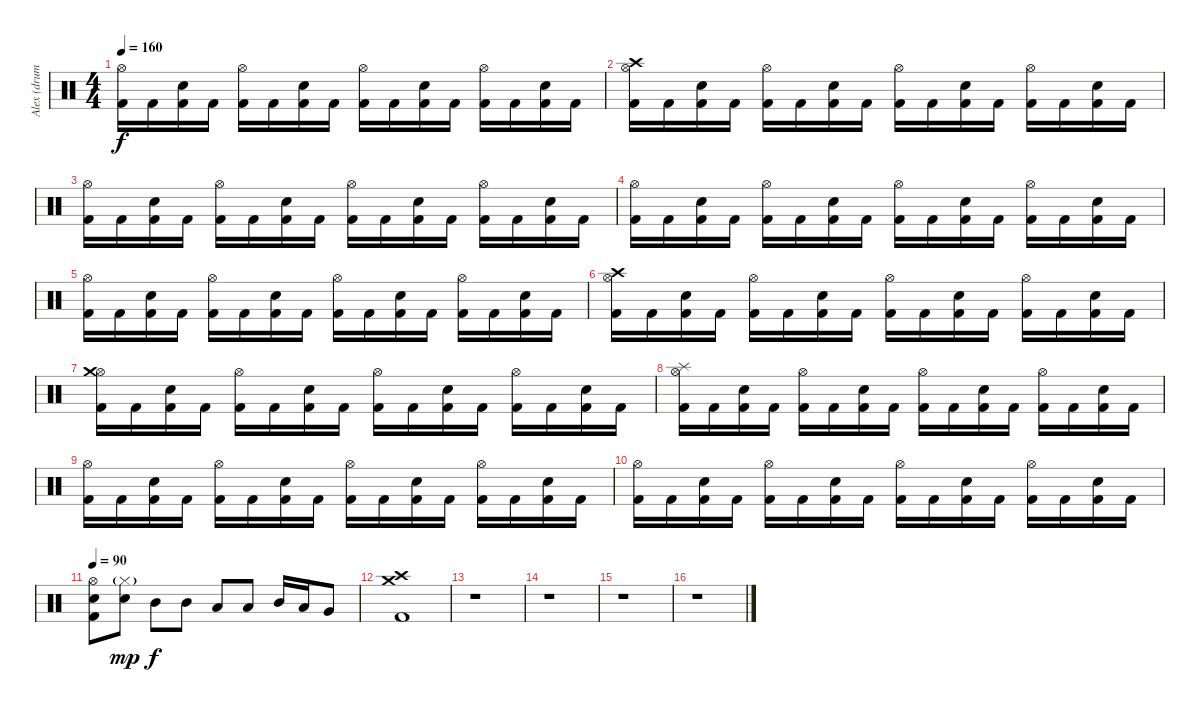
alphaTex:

\track ("Alex (drums)" "Alex (drum") {instrument percussion}
\staff {score}
\articulation defaults
\ts (4 4)
\tempo 160
\clef neutral
\ks c
("Hi-Hat (open)" "Kick (hit) 2").16{dy f} "Kick (hit) 2".16 ("Snare (hit) 2" "Kick (hit) 2").16 "Kick (hit) 2".16 ("Hi-Hat (open)" "Kick (hit) 2").16 "Kick (hit) 2".16 ("Snare (hit) 2" "Kick (hit) 2").16 "Kick (hit) 2".16 ("Hi-Hat (open)" "Kick (hit) 2").16 "Kick (hit) 2".16 ("Snare (hit) 2" "Kick (hit) 2").16 "Kick (hit) 2".16 ("Hi-Hat (open)" "Kick (hit) 2").16 "Kick (hit) 2".16 ("Snare (hit) 2" "Kick (hit) 2").16 "Kick (hit) 2".16 |
("Hi-Hat (open)" "Kick (hit) 2" "Crash high (hit)").16 "Kick (hit) 2".16 ("Snare (hit) 2" "Kick (hit) 2").16 "Kick (hit) 2".16 ("Hi-Hat (open)" "Kick (hit) 2").16 "Kick (hit) 2".16 ("Snare (hit) 2" "Kick (hit) 2").16 "Kick (hit) 2".16 ("Hi-Hat (open)" "Kick (hit) 2").16 "Kick (hit) 2".16 ("Snare (hit) 2" "Kick (hit) 2").16 "Kick (hit) 2".16 ("Hi-Hat (open)" "Kick (hit) 2").16 "Kick (hit) 2".16 ("Snare (hit) 2" "Kick (hit) 2").16 "Kick (hit) 2".16 |
("Hi-Hat (open)" "Kick (hit) 2").16 "Kick (hit) 2".16 ("Snare (hit) 2" "Kick (hit) 2").16 "Kick (hit) 2".16 ("Hi-Hat (open)" "Kick (hit) 2").16 "Kick (hit) 2".16 ("Snare (hit) 2" "Kick (hit) 2").16 "Kick (hit) 2".16 ("Hi-Hat (open)" "Kick (hit) 2").16 "Kick (hit) 2".16 ("Snare (hit) 2" "Kick (hit) 2").16 "Kick (hit) 2".16 ("Hi-Hat (open)" "Kick (hit) 2").16 "Kick (hit) 2".16 ("Snare (hit) 2" "Kick (hit) 2").16 "Kick (hit) 2".16 |
("Hi-Hat (open)" "Kick (hit) 2").16 "Kick (hit) 2".16 ("Snare (hit) 2" "Kick (hit) 2").16 "Kick (hit) 2".16 ("Hi-Hat (open)" "Kick (hit) 2").16 "Kick (hit) 2".16 ("Snare (hit) 2" "Kick (hit) 2").16 "Kick (hit) 2".16 ("Hi-Hat (open)" "Kick (hit) 2").16 "Kick (hit) 2".16 ("Snare (hit) 2" "Kick (hit) 2").16 "Kick (hit) 2".16 ("Hi-Hat (open)" "Kick (hit) 2").16 "Kick (hit) 2".16 ("Snare (hit) 2" "Kick (hit) 2").16 "Kick (hit) 2".16 |
("Hi-Hat (open)" "Kick (hit) 2").16 "Kick (hit) 2".16 ("Snare (hit) 2" "Kick (hit) 2").16 "Kick (hit) 2".16 ("Hi-Hat (open)" "Kick (hit) 2").16 "Kick (hit) 2".16 ("Snare (hit) 2" "Kick (hit) 2").16 "Kick (hit) 2".16 ("Hi-Hat (open)" "Kick (hit) 2").16 "Kick (hit) 2".16 ("Snare (hit) 2" "Kick (hit) 2").16 "Kick (hit) 2".16 ("Hi-Hat (open)" "Kick (hit) 2").16 "Kick (hit) 2".16 ("Snare (hit) 2" "Kick (hit) 2").16 "Kick (hit) 2".16 |
("Hi-Hat (open)" "Kick (hit) 2" "Crash high (hit)").16 "Kick (hit) 2".16 ("Snare (hit) 2" "Kick (hit) 2").16 "Kick (hit) 2".16 ("Hi-Hat (open)" "Kick (hit) 2").16 "Kick (hit) 2".16 ("Snare (hit) 2" "Kick (hit) 2").16 "Kick (hit) 2".16 ("Hi-Hat (open)" "Kick (hit) 2").16 "Kick (hit) 2".16 ("Snare (hit) 2" "Kick (hit) 2").16 "Kick (hit) 2".16 ("Hi-Hat (open)" "Kick (hit) 2").16 "Kick (hit) 2".16 ("Snare (hit) 2" "Kick (hit) 2").16 "Kick (hit) 2".16 |
("Hi-Hat (open)" "Kick (hit) 2" "Crash medium (hit)").16 "Kick (hit) 2".16 ("Snare (hit) 2" "Kick (hit) 2").16 "Kick (hit) 2".16 ("Hi-Hat (open)" "Kick (hit) 2").16 "Kick (hit) 2".16 ("Snare (hit) 2" "Kick (hit) 2").16 "Kick (hit) 2".16 ("Hi-Hat (open)" "Kick (hit) 2").16 "Kick (hit) 2".16 ("Snare (hit) 2" "Kick (hit) 2").16 "Kick (hit) 2".16 ("Hi-Hat (open)" "Kick (hit) 2").16 "Kick (hit) 2".16 ("Snare (hit) 2" "Kick (hit) 2").16 "Kick (hit) 2".16 |
("Hi-Hat (open)" "Kick (hit) 2" "Splash (hit)").16 "Kick (hit) 2".16 ("Snare (hit) 2" "Kick (hit) 2").16 "Kick (hit) 2".16 ("Hi-Hat (open)" "Kick (hit) 2").16 "Kick (hit) 2".16 ("Snare (hit) 2" "Kick (hit) 2").16 "Kick (hit) 2".16 ("Hi-Hat (open)" "Kick (hit) 2").16 "Kick (hit) 2".16 ("Snare (hit) 2" "Kick (hit) 2").16 "Kick (hit) 2".16 ("Hi-Hat (open)" "Kick (hit) 2").16 "Kick (hit) 2".16 ("Snare (hit) 2" "Kick (hit) 2").16 "Kick (hit) 2".16 |
("Hi-Hat (open)" "Kick (hit) 2").16 "Kick (hit) 2".16 ("Snare (hit) 2" "Kick (hit) 2").16 "Kick (hit) 2".16 ("Hi-Hat (open)" "Kick (hit) 2").16 "Kick (hit) 2".16 ("Snare (hit) 2" "Kick (hit) 2").16 "Kick (hit) 2".16 ("Hi-Hat (open)" "Kick (hit) 2").16 "Kick (hit) 2".16 ("Snare (hit) 2" "Kick (hit) 2").16 "Kick (hit) 2".16 ("Hi-Hat (open)" "Kick (hit) 2").16 "Kick (hit) 2".16 ("Snare (hit) 2" "Kick (hit) 2").16 "Kick (hit) 2".16 |
("Hi-Hat (open)" "Kick (hit) 2").16 "Kick (hit) 2".16 ("Snare (hit) 2" "Kick (hit) 2").16 "Kick (hit) 2".16 ("Hi-Hat (open)" "Kick (hit) 2").16 "Kick (hit) 2".16 ("Snare (hit) 2" "Kick (hit) 2").16 "Kick (hit) 2".16 ("Hi-Hat (open)" "Kick (hit) 2").16 "Kick (hit) 2".16 ("Snare (hit) 2" "Kick (hit) 2").16 "Kick (hit) 2".16 ("Hi-Hat (open)" "Kick (hit) 2").16 "Kick (hit) 2".16 ("Snare (hit) 2" "Kick (hit) 2").16 "Kick (hit) 2".16 |
\tempo 90
("Hi-Hat (open)" "Snare (hit) 2" "Kick (hit) 2").8 ("Hi-Hat (closed)"{g} "Snare (hit) 2").8{dy mp} "Mid Tom (hit)".8{dy f} "Mid Tom (hit)".8 "Low Tom (hit)".8 "Low Tom (hit)".8 "Mid Tom (hit)".16 "Low Tom (hit)".16 "Very Low Tom (hit)".8 |
("Kick (hit) 2" "Crash medium (hit)" "Crash high (hit)").1 |
r.1 |
r.1 |
r.1 |
r.1
